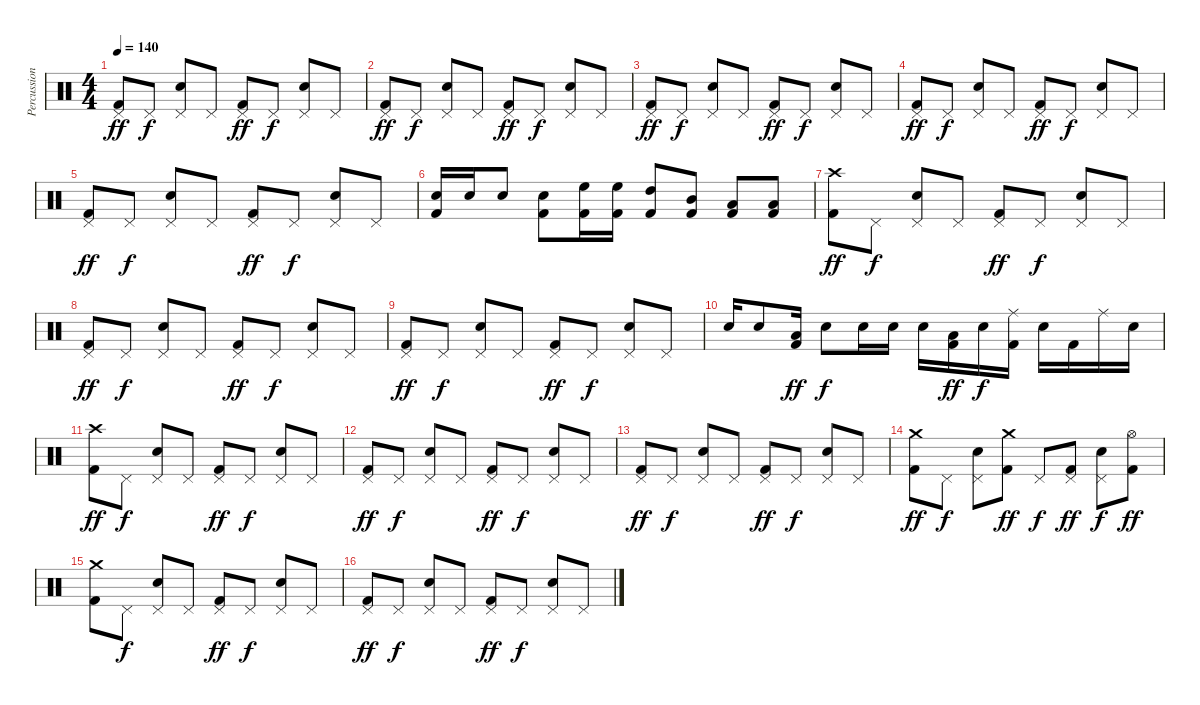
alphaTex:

\track ("Percussion" "Percussion") {instrument percussion}
\staff {score}
\articulation defaults
\ts (4 4)
\tempo 140
\clef neutral
\ks c
("Pedal Hi-Hat (hit)" "Kick (hit) 2").8{dy ff} "Pedal Hi-Hat (hit)".8{dy f} ("Pedal Hi-Hat (hit)" "Snare (hit) 2").8 "Pedal Hi-Hat (hit)".8 ("Pedal Hi-Hat (hit)" "Kick (hit) 2").8{dy ff} "Pedal Hi-Hat (hit)".8{dy f} ("Pedal Hi-Hat (hit)" "Snare (hit) 2").8 "Pedal Hi-Hat (hit)".8 |
("Pedal Hi-Hat (hit)" "Kick (hit) 2").8{dy ff} "Pedal Hi-Hat (hit)".8{dy f} ("Pedal Hi-Hat (hit)" "Snare (hit) 2").8 "Pedal Hi-Hat (hit)".8 ("Pedal Hi-Hat (hit)" "Kick (hit) 2").8{dy ff} "Pedal Hi-Hat (hit)".8{dy f} ("Pedal Hi-Hat (hit)" "Snare (hit) 2").8 "Pedal Hi-Hat (hit)".8 |
("Pedal Hi-Hat (hit)" "Kick (hit) 2").8{dy ff} "Pedal Hi-Hat (hit)".8{dy f} ("Pedal Hi-Hat (hit)" "Snare (hit) 2").8 "Pedal Hi-Hat (hit)".8 ("Pedal Hi-Hat (hit)" "Kick (hit) 2").8{dy ff} "Pedal Hi-Hat (hit)".8{dy f} ("Pedal Hi-Hat (hit)" "Snare (hit) 2").8 "Pedal Hi-Hat (hit)".8 |
("Pedal Hi-Hat (hit)" "Kick (hit) 2").8{dy ff} "Pedal Hi-Hat (hit)".8{dy f} ("Pedal Hi-Hat (hit)" "Snare (hit) 2").8 "Pedal Hi-Hat (hit)".8 ("Pedal Hi-Hat (hit)" "Kick (hit) 2").8{dy ff} "Pedal Hi-Hat (hit)".8{dy f} ("Pedal Hi-Hat (hit)" "Snare (hit) 2").8 "Pedal Hi-Hat (hit)".8 |
("Pedal Hi-Hat (hit)" "Kick (hit) 2").8{dy ff} "Pedal Hi-Hat (hit)".8{dy f} ("Pedal Hi-Hat (hit)" "Snare (hit) 2").8 "Pedal Hi-Hat (hit)".8 ("Pedal Hi-Hat (hit)" "Kick (hit) 2").8{dy ff} "Pedal Hi-Hat (hit)".8{dy f} ("Pedal Hi-Hat (hit)" "Snare (hit) 2").8 "Pedal Hi-Hat (hit)".8 |
("Snare (hit) 2" "Kick (hit) 2").16 "Snare (hit) 2".16 "Snare (hit) 2".8 ("Snare (hit) 2" "Kick (hit) 2").8 ("High Floor Tom (hit)" "Kick (hit) 2").16 ("High Floor Tom (hit)" "Kick (hit) 2").16 ("High Tom (hit)" "Kick (hit) 2").8 ("Mid Tom (hit)" "Kick (hit) 2").8 ("Low Tom (hit)" "Kick (hit) 2").8 ("Low Tom (hit)" "Kick (hit) 2").8 |
("Crash high (hit)" "Kick (hit) 2").8{dy ff} "Pedal Hi-Hat (hit)".8{dy f} ("Pedal Hi-Hat (hit)" "Snare (hit) 2").8 "Pedal Hi-Hat (hit)".8 ("Pedal Hi-Hat (hit)" "Kick (hit) 2").8{dy ff} "Pedal Hi-Hat (hit)".8{dy f} ("Pedal Hi-Hat (hit)" "Snare (hit) 2").8 "Pedal Hi-Hat (hit)".8 |
("Pedal Hi-Hat (hit)" "Kick (hit) 2").8{dy ff} "Pedal Hi-Hat (hit)".8{dy f} ("Pedal Hi-Hat (hit)" "Snare (hit) 2").8 "Pedal Hi-Hat (hit)".8 ("Pedal Hi-Hat (hit)" "Kick (hit) 2").8{dy ff} "Pedal Hi-Hat (hit)".8{dy f} ("Pedal Hi-Hat (hit)" "Snare (hit) 2").8 "Pedal Hi-Hat (hit)".8 |
("Pedal Hi-Hat (hit)" "Kick (hit) 2").8{dy ff} "Pedal Hi-Hat (hit)".8{dy f} ("Pedal Hi-Hat (hit)" "Snare (hit) 2").8 "Pedal Hi-Hat (hit)".8 ("Pedal Hi-Hat (hit)" "Kick (hit) 2").8{dy ff} "Pedal Hi-Hat (hit)".8{dy f} ("Pedal Hi-Hat (hit)" "Snare (hit) 2").8 "Pedal Hi-Hat (hit)".8 |
"Snare (hit) 2".16 "Snare (hit) 2".8 ("Low Tom (hit)" "Kick (hit) 2").16{dy ff} "Snare (hit) 2".8{dy f} "Snare (hit) 2".16 "Snare (hit) 2".16 "Snare (hit) 2".16 ("Low Tom (hit)" "Kick (hit) 2").16{dy ff} "Snare (hit) 2".16{dy f} ("Ride (middle)" "Kick (hit) 2").16 "Snare (hit) 2".16 "Kick (hit) 2".16 "Ride (middle)".16 "Snare (hit) 2".16 |
("Crash high (hit)" "Kick (hit) 2").8{dy ff} "Pedal Hi-Hat (hit)".8{dy f} ("Pedal Hi-Hat (hit)" "Snare (hit) 2").8 "Pedal Hi-Hat (hit)".8 ("Pedal Hi-Hat (hit)" "Kick (hit) 2").8{dy ff} "Pedal Hi-Hat (hit)".8{dy f} ("Pedal Hi-Hat (hit)" "Snare (hit) 2").8 "Pedal Hi-Hat (hit)".8 |
("Pedal Hi-Hat (hit)" "Kick (hit) 2").8{dy ff} "Pedal Hi-Hat (hit)".8{dy f} ("Pedal Hi-Hat (hit)" "Snare (hit) 2").8 "Pedal Hi-Hat (hit)".8 ("Pedal Hi-Hat (hit)" "Kick (hit) 2").8{dy ff} "Pedal Hi-Hat (hit)".8{dy f} ("Pedal Hi-Hat (hit)" "Snare (hit) 2").8 "Pedal Hi-Hat (hit)".8 |
("Pedal Hi-Hat (hit)" "Kick (hit) 2").8{dy ff} "Pedal Hi-Hat (hit)".8{dy f} ("Pedal Hi-Hat (hit)" "Snare (hit) 2").8 "Pedal Hi-Hat (hit)".8 ("Pedal Hi-Hat (hit)" "Kick (hit) 2").8{dy ff} "Pedal Hi-Hat (hit)".8{dy f} ("Pedal Hi-Hat (hit)" "Snare (hit) 2").8 "Pedal Hi-Hat (hit)".8 |
("Crash medium (hit)" "Kick (hit) 2").8{dy ff} "Pedal Hi-Hat (hit)".8{dy f} ("Pedal Hi-Hat (hit)" "Snare (hit) 2").8 ("Crash medium (hit)" "Kick (hit) 2").8{dy ff} "Pedal Hi-Hat (hit)".8{dy f} ("Pedal Hi-Hat (hit)" "Kick (hit) 2").8{dy ff} ("Pedal Hi-Hat (hit)" "Snare (hit) 2").8{dy f} ("Hi-Hat (open)" "Kick (hit) 2").8{dy ff} |
("Crash medium (hit)" "Kick (hit) 2").8 "Pedal Hi-Hat (hit)".8{dy f} ("Pedal Hi-Hat (hit)" "Snare (hit) 2").8 "Pedal Hi-Hat (hit)".8 ("Pedal Hi-Hat (hit)" "Kick (hit) 2").8{dy ff} "Pedal Hi-Hat (hit)".8{dy f} ("Pedal Hi-Hat (hit)" "Snare (hit) 2").8 "Pedal Hi-Hat (hit)".8 |
("Pedal Hi-Hat (hit)" "Kick (hit) 2").8{dy ff} "Pedal Hi-Hat (hit)".8{dy f} ("Pedal Hi-Hat (hit)" "Snare (hit) 2").8 "Pedal Hi-Hat (hit)".8 ("Pedal Hi-Hat (hit)" "Kick (hit) 2").8{dy ff} "Pedal Hi-Hat (hit)".8{dy f} ("Pedal Hi-Hat (hit)" "Snare (hit) 2").8 "Pedal Hi-Hat (hit)".8
